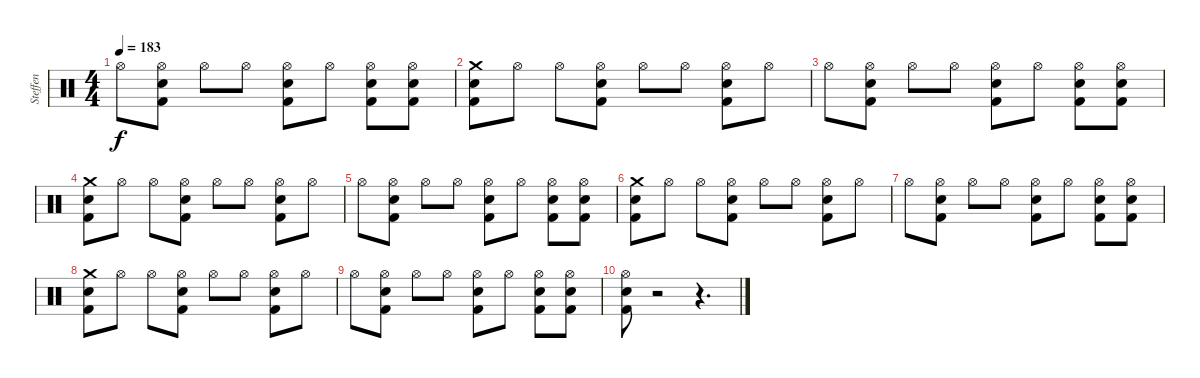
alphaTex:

\track ("Steffen" "Steffen") {instrument percussion}
\staff {score}
\articulation defaults
\ts (4 4)
\tempo 183
\clef neutral
\ks c "Hi-Hat (open)".8{dy f}
("Hi-Hat (open)" "Snare (hit) 2" "Kick (hit) 2").8 "Hi-Hat (open)".8 "Hi-Hat (open)".8 ("Hi-Hat (open)" "Snare (hit) 2" "Kick (hit) 2").8 "Hi-Hat (open)".8 ("Hi-Hat (open)" "Snare (hit) 2" "Kick (hit) 2").8 ("Hi-Hat (open)" "Snare (hit) 2" "Kick (hit) 2").8 |
("Crash medium (hit)" "Snare (hit) 2" "Kick (hit) 2").8 "Hi-Hat (open)".8 "Hi-Hat (open)".8 ("Hi-Hat (open)" "Snare (hit) 2" "Kick (hit) 2").8 "Hi-Hat (open)".8 "Hi-Hat (open)".8 ("Hi-Hat (open)" "Snare (hit) 2" "Kick (hit) 2").8 "Hi-Hat (open)".8 |
"Hi-Hat (open)".8 ("Hi-Hat (open)" "Snare (hit) 2" "Kick (hit) 2").8 "Hi-Hat (open)".8 "Hi-Hat (open)".8 ("Hi-Hat (open)" "Snare (hit) 2" "Kick (hit) 2").8 "Hi-Hat (open)".8 ("Hi-Hat (open)" "Snare (hit) 2" "Kick (hit) 2").8 ("Hi-Hat (open)" "Snare (hit) 2" "Kick (hit) 2").8 |
("Crash medium (hit)" "Snare (hit) 2" "Kick (hit) 2").8 "Hi-Hat (open)".8 "Hi-Hat (open)".8 ("Hi-Hat (open)" "Snare (hit) 2" "Kick (hit) 2").8 "Hi-Hat (open)".8 "Hi-Hat (open)".8 ("Hi-Hat (open)" "Snare (hit) 2" "Kick (hit) 2").8 "Hi-Hat (open)".8 |
"Hi-Hat (open)".8 ("Hi-Hat (open)" "Snare (hit) 2" "Kick (hit) 2").8 "Hi-Hat (open)".8 "Hi-Hat (open)".8 ("Hi-Hat (open)" "Snare (hit) 2" "Kick (hit) 2").8 "Hi-Hat (open)".8 ("Hi-Hat (open)" "Snare (hit) 2" "Kick (hit) 2").8 ("Hi-Hat (open)" "Snare (hit) 2" "Kick (hit) 2").8 |
("Crash medium (hit)" "Snare (hit) 2" "Kick (hit) 2").8 "Hi-Hat (open)".8 "Hi-Hat (open)".8 ("Hi-Hat (open)" "Snare (hit) 2" "Kick (hit) 2").8 "Hi-Hat (open)".8 "Hi-Hat (open)".8 ("Hi-Hat (open)" "Snare (hit) 2" "Kick (hit) 2").8 "Hi-Hat (open)".8 |
"Hi-Hat (open)".8 ("Hi-Hat (open)" "Snare (hit) 2" "Kick (hit) 2").8 "Hi-Hat (open)".8 "Hi-Hat (open)".8 ("Hi-Hat (open)" "Snare (hit) 2" "Kick (hit) 2").8 "Hi-Hat (open)".8 ("Hi-Hat (open)" "Snare (hit) 2" "Kick (hit) 2").8 ("Hi-Hat (open)" "Snare (hit) 2" "Kick (hit) 2").8 |
("Crash medium (hit)" "Snare (hit) 2" "Kick (hit) 2").8 "Hi-Hat (open)".8 "Hi-Hat (open)".8 ("Hi-Hat (open)" "Snare (hit) 2" "Kick (hit) 2").8 "Hi-Hat (open)".8 "Hi-Hat (open)".8 ("Hi-Hat (open)" "Snare (hit) 2" "Kick (hit) 2").8 "Hi-Hat (open)".8 |
"Hi-Hat (open)".8 ("Hi-Hat (open)" "Snare (hit) 2" "Kick (hit) 2").8 "Hi-Hat (open)".8 "Hi-Hat (open)".8 ("Hi-Hat (open)" "Snare (hit) 2" "Kick (hit) 2").8 "Hi-Hat (open)".8 ("Hi-Hat (open)" "Snare (hit) 2" "Kick (hit) 2").8 ("Hi-Hat (open)" "Snare (hit) 2" "Kick (hit) 2").8 |
("Hi-Hat (open)" "Snare (hit) 2" "Kick (hit) 2").8 r.2 r.4{d}
